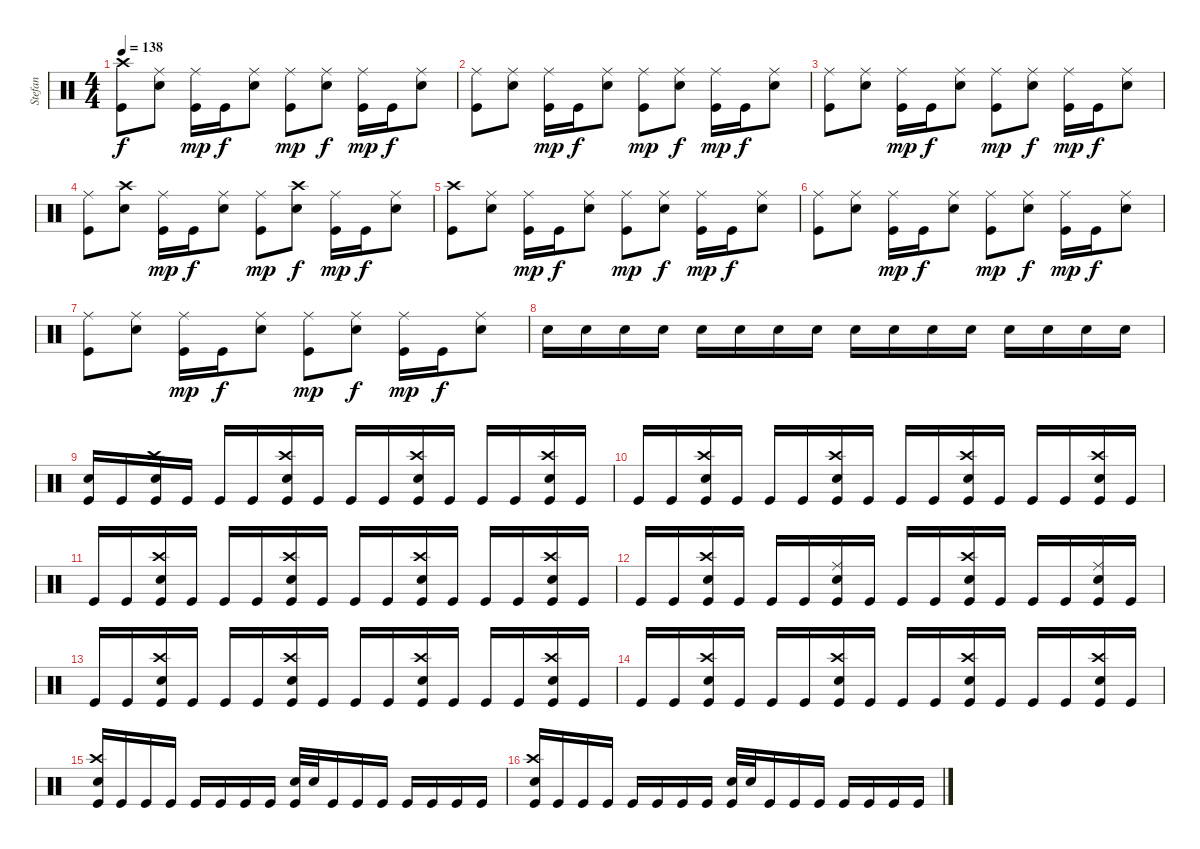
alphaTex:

\track ("Stefan" "Stefan") {instrument percussion}
\staff {score}
\articulation defaults
\ts (4 4)
\tempo 138
\clef neutral
\ks c
("Kick (hit)" "Crash high (hit)").8{dy f} ("Ride (middle)" "Snare (hit) 2").8 ("Ride (middle)" "Kick (hit)").16{dy mp} "Kick (hit)".16{dy f} ("Ride (middle)" "Snare (hit) 2").8 ("Ride (middle)" "Kick (hit)").8{dy mp} ("Ride (middle)" "Snare (hit) 2").8{dy f} ("Ride (middle)" "Kick (hit)").16{dy mp} "Kick (hit)".16{dy f} ("Ride (middle)" "Snare (hit) 2").8 |
("Ride (middle)" "Kick (hit)").8 ("Ride (middle)" "Snare (hit) 2").8 ("Ride (middle)" "Kick (hit)").16{dy mp} "Kick (hit)".16{dy f} ("Ride (middle)" "Snare (hit) 2").8 ("Ride (middle)" "Kick (hit)").8{dy mp} ("Ride (middle)" "Snare (hit) 2").8{dy f} ("Ride (middle)" "Kick (hit)").16{dy mp} "Kick (hit)".16{dy f} ("Ride (middle)" "Snare (hit) 2").8 |
("Ride (middle)" "Kick (hit)").8 ("Ride (middle)" "Snare (hit) 2").8 ("Ride (middle)" "Kick (hit)").16{dy mp} "Kick (hit)".16{dy f} ("Ride (middle)" "Snare (hit) 2").8 ("Ride (middle)" "Kick (hit)").8{dy mp} ("Ride (middle)" "Snare (hit) 2").8{dy f} ("Ride (middle)" "Kick (hit)").16{dy mp} "Kick (hit)".16{dy f} ("Ride (middle)" "Snare (hit) 2").8 |
("Ride (middle)" "Kick (hit)").8 ("Snare (hit) 2" "Crash high (hit)").8 ("Ride (middle)" "Kick (hit)").16{dy mp} "Kick (hit)".16{dy f} ("Ride (middle)" "Snare (hit) 2").8 ("Ride (middle)" "Kick (hit)").8{dy mp} ("Snare (hit) 2" "Crash high (hit)").8{dy f} ("Ride (middle)" "Kick (hit)").16{dy mp} "Kick (hit)".16{dy f} ("Ride (middle)" "Snare (hit) 2").8 |
("Kick (hit)" "Crash high (hit)").8 ("Ride (middle)" "Snare (hit) 2").8 ("Ride (middle)" "Kick (hit)").16{dy mp} "Kick (hit)".16{dy f} ("Ride (middle)" "Snare (hit) 2").8 ("Ride (middle)" "Kick (hit)").8{dy mp} ("Ride (middle)" "Snare (hit) 2").8{dy f} ("Ride (middle)" "Kick (hit)").16{dy mp} "Kick (hit)".16{dy f} ("Ride (middle)" "Snare (hit) 2").8 |
("Ride (middle)" "Kick (hit)").8 ("Ride (middle)" "Snare (hit) 2").8 ("Ride (middle)" "Kick (hit)").16{dy mp} "Kick (hit)".16{dy f} ("Ride (middle)" "Snare (hit) 2").8 ("Ride (middle)" "Kick (hit)").8{dy mp} ("Ride (middle)" "Snare (hit) 2").8{dy f} ("Ride (middle)" "Kick (hit)").16{dy mp} "Kick (hit)".16{dy f} ("Ride (middle)" "Snare (hit) 2").8 |
("Ride (middle)" "Kick (hit)").8 ("Ride (middle)" "Snare (hit) 2").8 ("Ride (middle)" "Kick (hit)").16{dy mp} "Kick (hit)".16{dy f} ("Ride (middle)" "Snare (hit) 2").8 ("Ride (middle)" "Kick (hit)").8{dy mp} ("Ride (middle)" "Snare (hit) 2").8{dy f} ("Ride (middle)" "Kick (hit)").16{dy mp} "Kick (hit)".16{dy f} ("Ride (middle)" "Snare (hit) 2").8 |
"Snare (hit) 2".16 "Snare (hit) 2".16 "Snare (hit) 2".16 "Snare (hit) 2".16 "Snare (hit) 2".16 "Snare (hit) 2".16 "Snare (hit) 2".16 "Snare (hit) 2".16 "Snare (hit) 2".16 "Snare (hit) 2".16 "Snare (hit) 2".16 "Snare (hit) 2".16 "Snare (hit) 2".16 "Snare (hit) 2".16 "Snare (hit) 2".16 "Snare (hit) 2".16 |
("Snare (hit) 2" "Kick (hit)").16 "Kick (hit)".16 ("Crash high (hit)" "Snare (hit) 2" "Kick (hit)").16 "Kick (hit)".16 "Kick (hit)".16 "Kick (hit)".16 ("Crash high (hit)" "Snare (hit) 2" "Kick (hit)").16 "Kick (hit)".16 "Kick (hit)".16 "Kick (hit)".16 ("Crash high (hit)" "Snare (hit) 2" "Kick (hit)").16 "Kick (hit)".16 "Kick (hit)".16 "Kick (hit)".16 ("Crash high (hit)" "Snare (hit) 2" "Kick (hit)").16 "Kick (hit)".16 |
"Kick (hit)".16 "Kick (hit)".16 ("Crash high (hit)" "Snare (hit) 2" "Kick (hit)").16 "Kick (hit)".16 "Kick (hit)".16 "Kick (hit)".16 ("Crash high (hit)" "Snare (hit) 2" "Kick (hit)").16 "Kick (hit)".16 "Kick (hit)".16 "Kick (hit)".16 ("Crash high (hit)" "Snare (hit) 2" "Kick (hit)").16 "Kick (hit)".16 "Kick (hit)".16 "Kick (hit)".16 ("Crash high (hit)" "Snare (hit) 2" "Kick (hit)").16 "Kick (hit)".16 |
"Kick (hit)".16 "Kick (hit)".16 ("Crash high (hit)" "Snare (hit) 2" "Kick (hit)").16 "Kick (hit)".16 "Kick (hit)".16 "Kick (hit)".16 ("Crash high (hit)" "Snare (hit) 2" "Kick (hit)").16 "Kick (hit)".16 "Kick (hit)".16 "Kick (hit)".16 ("Crash high (hit)" "Snare (hit) 2" "Kick (hit)").16 "Kick (hit)".16 "Kick (hit)".16 "Kick (hit)".16 ("Crash high (hit)" "Snare (hit) 2" "Kick (hit)").16 "Kick (hit)".16 |
"Kick (hit)".16 "Kick (hit)".16 ("Crash high (hit)" "Snare (hit) 2" "Kick (hit)").16 "Kick (hit)".16 "Kick (hit)".16 "Kick (hit)".16 ("Ride (middle)" "Snare (hit) 2" "Kick (hit)").16 "Kick (hit)".16 "Kick (hit)".16 "Kick (hit)".16 ("Crash high (hit)" "Snare (hit) 2" "Kick (hit)").16 "Kick (hit)".16 "Kick (hit)".16 "Kick (hit)".16 ("Ride (middle)" "Snare (hit) 2" "Kick (hit)").16 "Kick (hit)".16 |
"Kick (hit)".16 "Kick (hit)".16 ("Crash high (hit)" "Snare (hit) 2" "Kick (hit)").16 "Kick (hit)".16 "Kick (hit)".16 "Kick (hit)".16 ("Crash high (hit)" "Snare (hit) 2" "Kick (hit)").16 "Kick (hit)".16 "Kick (hit)".16 "Kick (hit)".16 ("Crash high (hit)" "Snare (hit) 2" "Kick (hit)").16 "Kick (hit)".16 "Kick (hit)".16 "Kick (hit)".16 ("Crash high (hit)" "Snare (hit) 2" "Kick (hit)").16 "Kick (hit)".16 |
"Kick (hit)".16 "Kick (hit)".16 ("Crash high (hit)" "Snare (hit) 2" "Kick (hit)").16 "Kick (hit)".16 "Kick (hit)".16 "Kick (hit)".16 ("Crash high (hit)" "Snare (hit) 2" "Kick (hit)").16 "Kick (hit)".16 "Kick (hit)".16 "Kick (hit)".16 ("Crash high (hit)" "Snare (hit) 2" "Kick (hit)").16 "Kick (hit)".16 "Kick (hit)".16 "Kick (hit)".16 ("Crash high (hit)" "Snare (hit) 2" "Kick (hit)").16 "Kick (hit)".16 |
("Crash high (hit)" "Snare (hit) 2" "Kick (hit)").16 "Kick (hit)".16 "Kick (hit)".16 "Kick (hit)".16 "Kick (hit)".16 "Kick (hit)".16 "Kick (hit)".16 "Kick (hit)".16 ("Kick (hit)" "Snare (hit) 2").32 "Snare (hit) 2".32 "Kick (hit)".16 "Kick (hit)".16 "Kick (hit)".16 "Kick (hit)".16 "Kick (hit)".16 "Kick (hit)".16 "Kick (hit)".16 |
("Crash high (hit)" "Snare (hit) 2" "Kick (hit)").16 "Kick (hit)".16 "Kick (hit)".16 "Kick (hit)".16 "Kick (hit)".16 "Kick (hit)".16 "Kick (hit)".16 "Kick (hit)".16 ("Kick (hit)" "Snare (hit) 2").32 "Snare (hit) 2".32 "Kick (hit)".16 "Kick (hit)".16 "Kick (hit)".16 "Kick (hit)".16 "Kick (hit)".16 "Kick (hit)".16 "Kick (hit)".16
